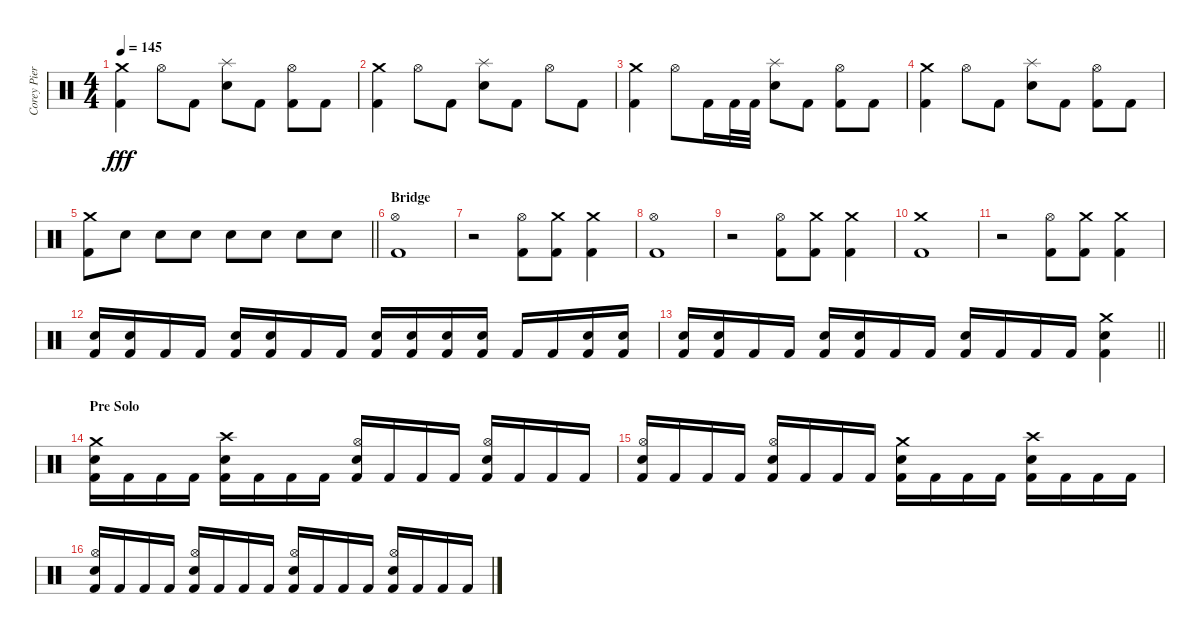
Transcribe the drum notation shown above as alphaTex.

\track ("Corey Pierce" "Corey Pier") {instrument percussion}
\staff {score}
\articulation defaults
\ts (4 4)
\tempo 145
\clef neutral
\ks c
("Crash medium (hit)" "Kick (hit) 2").4{dy fff} "Hi-Hat (open)".8 "Kick (hit) 2".8 ("Splash (hit)" "Electric Snare (hit)").8 "Kick (hit) 2".8 ("Hi-Hat (open)" "Kick (hit) 2").8 "Kick (hit) 2".8 |
("Crash medium (hit)" "Kick (hit) 2").4 "Hi-Hat (open)".8 "Kick (hit) 2".8 ("Splash (hit)" "Electric Snare (hit)").8 "Kick (hit) 2".8 "Hi-Hat (open)".8 "Kick (hit) 2".8 |
("Crash medium (hit)" "Kick (hit) 2").4 "Hi-Hat (open)".8 "Kick (hit) 2".16 "Kick (hit) 2".32 "Kick (hit) 2".32 ("Splash (hit)" "Electric Snare (hit)").8 "Kick (hit) 2".8 ("Hi-Hat (open)" "Kick (hit) 2").8 "Kick (hit) 2".8 |
("Crash medium (hit)" "Kick (hit) 2").4 "Hi-Hat (open)".8 "Kick (hit) 2".8 ("Splash (hit)" "Electric Snare (hit)").8 "Kick (hit) 2".8 ("Hi-Hat (open)" "Kick (hit) 2").8 "Kick (hit) 2".8 |
\barLineRight lightlight
("Crash medium (hit)" "Kick (hit) 2").8 "Electric Snare (hit)".8 "Electric Snare (hit)".8 "Electric Snare (hit)".8 "Electric Snare (hit)".8 "Electric Snare (hit)".8 "Electric Snare (hit)".8 "Electric Snare (hit)".8 |
\section ("" "Bridge")
("Hi-Hat (open)" "Kick (hit) 2").1 |
r.2 ("Hi-Hat (open)" "Kick (hit) 2").8 ("Crash medium (hit)" "Kick (hit) 2").8 ("Crash medium (hit)" "Kick (hit) 2").4 |
("Hi-Hat (open)" "Kick (hit) 2").1 |
r.2 ("Hi-Hat (open)" "Kick (hit) 2").8 ("Crash medium (hit)" "Kick (hit) 2").8 ("Crash medium (hit)" "Kick (hit) 2").4 |
("Crash medium (hit)" "Kick (hit) 2").1 |
r.2 ("Hi-Hat (open)" "Kick (hit) 2").8 ("Crash medium (hit)" "Kick (hit) 2").8 ("Crash medium (hit)" "Kick (hit) 2").4 |
("Electric Snare (hit)" "Kick (hit) 2").16 ("Electric Snare (hit)" "Kick (hit) 2").16 "Kick (hit) 2".16 "Kick (hit) 2".16 ("Electric Snare (hit)" "Kick (hit) 2").16 ("Electric Snare (hit)" "Kick (hit) 2").16 "Kick (hit) 2".16 "Kick (hit) 2".16 ("Electric Snare (hit)" "Kick (hit) 2").16 ("Electric Snare (hit)" "Kick (hit) 2").16 ("Electric Snare (hit)" "Kick (hit) 2").16 ("Electric Snare (hit)" "Kick (hit) 2").16 "Kick (hit) 2".16 "Kick (hit) 2".16 ("Electric Snare (hit)" "Kick (hit) 2").16 ("Electric Snare (hit)" "Kick (hit) 2").16 |
\barLineRight lightlight
("Electric Snare (hit)" "Kick (hit) 2").16 ("Electric Snare (hit)" "Kick (hit) 2").16 "Kick (hit) 2".16 "Kick (hit) 2".16 ("Electric Snare (hit)" "Kick (hit) 2").16 ("Electric Snare (hit)" "Kick (hit) 2").16 "Kick (hit) 2".16 "Kick (hit) 2".16 ("Electric Snare (hit)" "Kick (hit) 2").16 "Kick (hit) 2".16 "Kick (hit) 2".16 "Kick (hit) 2".16 ("Crash medium (hit)" "Electric Snare (hit)" "Kick (hit) 2").4 |
\section ("" "Pre Solo")
("Crash medium (hit)" "Electric Snare (hit)" "Kick (hit) 2").16 "Kick (hit) 2".16 "Kick (hit) 2".16 "Kick (hit) 2".16 ("Crash high (hit)" "Electric Snare (hit)" "Kick (hit) 2").16 "Kick (hit) 2".16 "Kick (hit) 2".16 "Kick (hit) 2".16 ("Hi-Hat (open)" "Electric Snare (hit)" "Kick (hit) 2").16 "Kick (hit) 2".16 "Kick (hit) 2".16 "Kick (hit) 2".16 ("Hi-Hat (open)" "Electric Snare (hit)" "Kick (hit) 2").16 "Kick (hit) 2".16 "Kick (hit) 2".16 "Kick (hit) 2".16 |
("Hi-Hat (open)" "Electric Snare (hit)" "Kick (hit) 2").16 "Kick (hit) 2".16 "Kick (hit) 2".16 "Kick (hit) 2".16 ("Hi-Hat (open)" "Electric Snare (hit)" "Kick (hit) 2").16 "Kick (hit) 2".16 "Kick (hit) 2".16 "Kick (hit) 2".16 ("Crash medium (hit)" "Electric Snare (hit)" "Kick (hit) 2").16 "Kick (hit) 2".16 "Kick (hit) 2".16 "Kick (hit) 2".16 ("Crash high (hit)" "Electric Snare (hit)" "Kick (hit) 2").16 "Kick (hit) 2".16 "Kick (hit) 2".16 "Kick (hit) 2".16 |
("Hi-Hat (open)" "Electric Snare (hit)" "Kick (hit) 2").16 "Kick (hit) 2".16 "Kick (hit) 2".16 "Kick (hit) 2".16 ("Hi-Hat (open)" "Electric Snare (hit)" "Kick (hit) 2").16 "Kick (hit) 2".16 "Kick (hit) 2".16 "Kick (hit) 2".16 ("Hi-Hat (open)" "Electric Snare (hit)" "Kick (hit) 2").16 "Kick (hit) 2".16 "Kick (hit) 2".16 "Kick (hit) 2".16 ("Hi-Hat (open)" "Electric Snare (hit)" "Kick (hit) 2").16 "Kick (hit) 2".16 "Kick (hit) 2".16 "Kick (hit) 2".16
